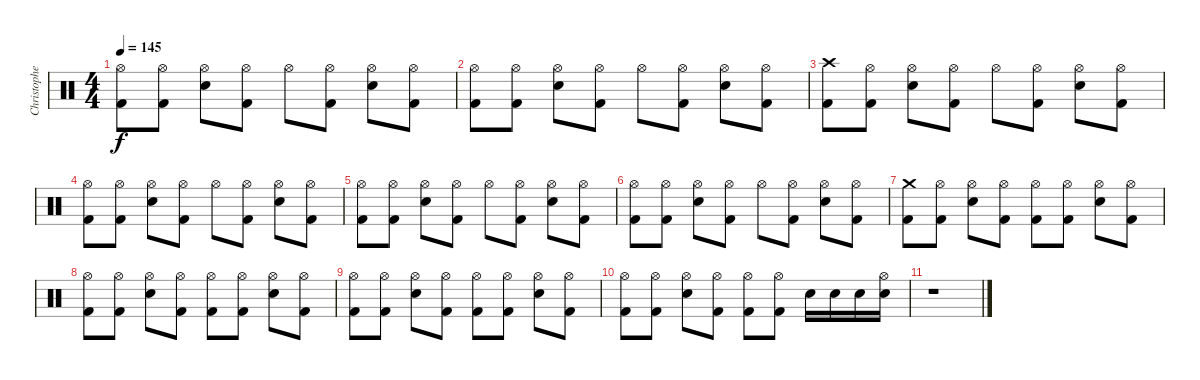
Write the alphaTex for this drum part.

\track ("Christopher - Drums" "Christophe") {instrument percussion}
\staff {score}
\articulation defaults
\ts (4 4)
\tempo 145
\clef neutral
\ks c
("Hi-Hat (open)" "Kick (hit) 2").8{dy f} ("Hi-Hat (open)" "Kick (hit) 2").8 ("Hi-Hat (open)" "Electric Snare (hit)").8 ("Hi-Hat (open)" "Kick (hit) 2").8 "Hi-Hat (open)".8 ("Hi-Hat (open)" "Kick (hit) 2").8 ("Hi-Hat (open)" "Electric Snare (hit)").8 ("Hi-Hat (open)" "Kick (hit) 2").8 |
("Hi-Hat (open)" "Kick (hit) 2").8 ("Hi-Hat (open)" "Kick (hit) 2").8 ("Hi-Hat (open)" "Electric Snare (hit)").8 ("Hi-Hat (open)" "Kick (hit) 2").8 "Hi-Hat (open)".8 ("Hi-Hat (open)" "Kick (hit) 2").8 ("Hi-Hat (open)" "Electric Snare (hit)").8 ("Hi-Hat (open)" "Kick (hit) 2").8 |
("Crash high (hit)" "Kick (hit) 2").8 ("Hi-Hat (open)" "Kick (hit) 2").8 ("Hi-Hat (open)" "Electric Snare (hit)").8 ("Hi-Hat (open)" "Kick (hit) 2").8 "Hi-Hat (open)".8 ("Hi-Hat (open)" "Kick (hit) 2").8 ("Hi-Hat (open)" "Electric Snare (hit)").8 ("Hi-Hat (open)" "Kick (hit) 2").8 |
("Hi-Hat (open)" "Kick (hit) 2").8 ("Hi-Hat (open)" "Kick (hit) 2").8 ("Hi-Hat (open)" "Electric Snare (hit)").8 ("Hi-Hat (open)" "Kick (hit) 2").8 "Hi-Hat (open)".8 ("Hi-Hat (open)" "Kick (hit) 2").8 ("Hi-Hat (open)" "Electric Snare (hit)").8 ("Hi-Hat (open)" "Kick (hit) 2").8 |
("Hi-Hat (open)" "Kick (hit) 2").8 ("Hi-Hat (open)" "Kick (hit) 2").8 ("Hi-Hat (open)" "Electric Snare (hit)").8 ("Hi-Hat (open)" "Kick (hit) 2").8 "Hi-Hat (open)".8 ("Hi-Hat (open)" "Kick (hit) 2").8 ("Hi-Hat (open)" "Electric Snare (hit)").8 ("Hi-Hat (open)" "Kick (hit) 2").8 |
("Hi-Hat (open)" "Kick (hit) 2").8 ("Hi-Hat (open)" "Kick (hit) 2").8 ("Hi-Hat (open)" "Electric Snare (hit)").8 ("Hi-Hat (open)" "Kick (hit) 2").8 "Hi-Hat (open)".8 ("Hi-Hat (open)" "Kick (hit) 2").8 ("Hi-Hat (open)" "Electric Snare (hit)").8 ("Hi-Hat (open)" "Kick (hit) 2").8 |
("Crash medium (hit)" "Kick (hit) 2").8 ("Hi-Hat (open)" "Kick (hit) 2").8 ("Hi-Hat (open)" "Electric Snare (hit)").8 ("Hi-Hat (open)" "Kick (hit) 2").8 ("Hi-Hat (open)" "Kick (hit) 2").8 ("Hi-Hat (open)" "Kick (hit) 2").8 ("Hi-Hat (open)" "Electric Snare (hit)").8 ("Hi-Hat (open)" "Kick (hit) 2").8 |
("Hi-Hat (open)" "Kick (hit) 2").8 ("Hi-Hat (open)" "Kick (hit) 2").8 ("Hi-Hat (open)" "Electric Snare (hit)").8 ("Hi-Hat (open)" "Kick (hit) 2").8 ("Hi-Hat (open)" "Kick (hit) 2").8 ("Hi-Hat (open)" "Kick (hit) 2").8 ("Hi-Hat (open)" "Electric Snare (hit)").8 ("Hi-Hat (open)" "Kick (hit) 2").8 |
("Hi-Hat (open)" "Kick (hit) 2").8 ("Hi-Hat (open)" "Kick (hit) 2").8 ("Hi-Hat (open)" "Electric Snare (hit)").8 ("Hi-Hat (open)" "Kick (hit) 2").8 ("Hi-Hat (open)" "Kick (hit) 2").8 ("Hi-Hat (open)" "Kick (hit) 2").8 ("Hi-Hat (open)" "Electric Snare (hit)").8 ("Hi-Hat (open)" "Kick (hit) 2").8 |
("Hi-Hat (open)" "Kick (hit) 2").8 ("Hi-Hat (open)" "Kick (hit) 2").8 ("Hi-Hat (open)" "Electric Snare (hit)").8 ("Hi-Hat (open)" "Kick (hit) 2").8 ("Hi-Hat (open)" "Kick (hit) 2").8 ("Hi-Hat (open)" "Kick (hit) 2").8 "Electric Snare (hit)".16 "Electric Snare (hit)".16 "Electric Snare (hit)".16 ("Hi-Hat (open)" "Electric Snare (hit)").16 |
r.1
